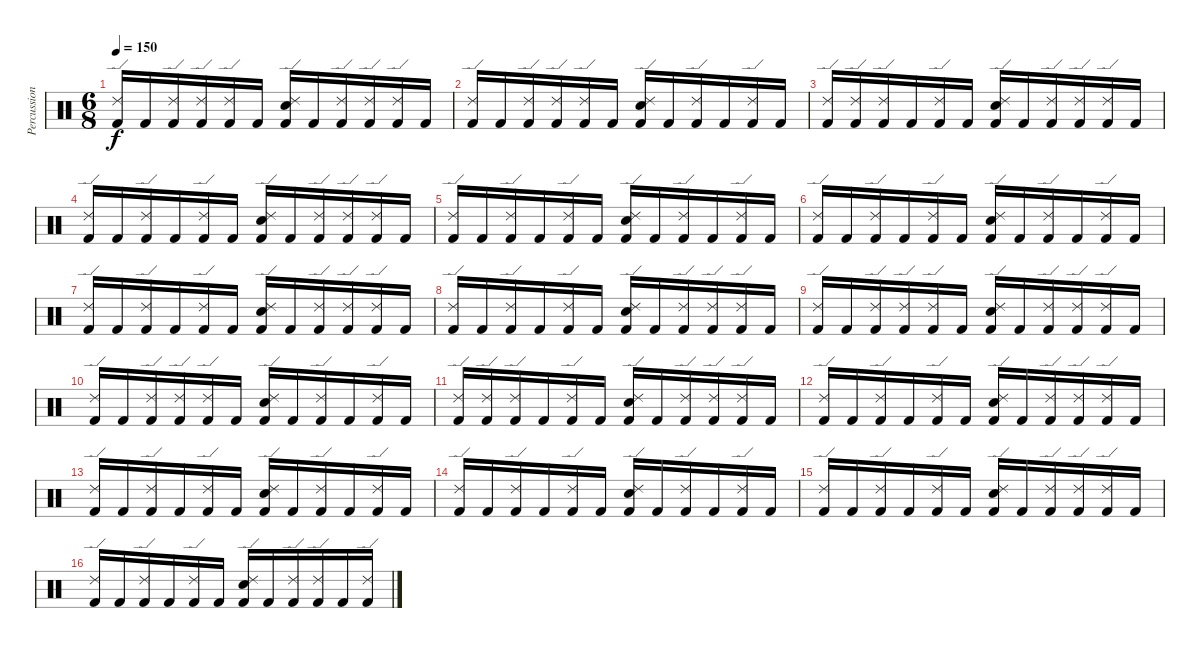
\track ("Percussion" "Percussion") {instrument percussion}
\staff {score}
\articulation defaults
\ts (6 8)
\tempo 150
\clef neutral
\ks c
("Ride (edge) 2" "Kick (hit) 2").16{dy f} "Kick (hit) 2".16 ("Ride (edge) 2" "Kick (hit) 2").16 ("Ride (edge) 2" "Kick (hit) 2").16 ("Ride (edge) 2" "Kick (hit) 2").16 "Kick (hit) 2".16 ("Ride (edge) 2" "Electric Snare (hit)" "Kick (hit) 2").16 "Kick (hit) 2".16 ("Ride (edge) 2" "Kick (hit) 2").16 ("Ride (edge) 2" "Kick (hit) 2").16 ("Ride (edge) 2" "Kick (hit) 2").16 "Kick (hit) 2".16 |
("Ride (edge) 2" "Kick (hit) 2").16 "Kick (hit) 2".16 ("Ride (edge) 2" "Kick (hit) 2").16 ("Ride (edge) 2" "Kick (hit) 2").16 ("Ride (edge) 2" "Kick (hit) 2").16 "Kick (hit) 2".16 ("Ride (edge) 2" "Electric Snare (hit)" "Kick (hit) 2").16 "Kick (hit) 2".16 ("Ride (edge) 2" "Kick (hit) 2").16 "Kick (hit) 2".16 ("Ride (edge) 2" "Kick (hit) 2").16 "Kick (hit) 2".16 |
("Ride (edge) 2" "Kick (hit) 2").16 ("Ride (edge) 2" "Kick (hit) 2").16 ("Ride (edge) 2" "Kick (hit) 2").16 "Kick (hit) 2".16 ("Ride (edge) 2" "Kick (hit) 2").16 "Kick (hit) 2".16 ("Ride (edge) 2" "Electric Snare (hit)" "Kick (hit) 2").16 "Kick (hit) 2".16 ("Ride (edge) 2" "Kick (hit) 2").16 ("Ride (edge) 2" "Kick (hit) 2").16 ("Ride (edge) 2" "Kick (hit) 2").16 "Kick (hit) 2".16 |
("Ride (edge) 2" "Kick (hit) 2").16 "Kick (hit) 2".16 ("Ride (edge) 2" "Kick (hit) 2").16 "Kick (hit) 2".16 ("Ride (edge) 2" "Kick (hit) 2").16 "Kick (hit) 2".16 ("Ride (edge) 2" "Electric Snare (hit)" "Kick (hit) 2").16 "Kick (hit) 2".16 ("Ride (edge) 2" "Kick (hit) 2").16 ("Ride (edge) 2" "Kick (hit) 2").16 ("Ride (edge) 2" "Kick (hit) 2").16 "Kick (hit) 2".16 |
("Ride (edge) 2" "Kick (hit) 2").16 "Kick (hit) 2".16 ("Ride (edge) 2" "Kick (hit) 2").16 "Kick (hit) 2".16 ("Ride (edge) 2" "Kick (hit) 2").16 "Kick (hit) 2".16 ("Ride (edge) 2" "Electric Snare (hit)" "Kick (hit) 2").16 "Kick (hit) 2".16 ("Ride (edge) 2" "Kick (hit) 2").16 "Kick (hit) 2".16 ("Ride (edge) 2" "Kick (hit) 2").16 "Kick (hit) 2".16 |
("Ride (edge) 2" "Kick (hit) 2").16 "Kick (hit) 2".16 ("Ride (edge) 2" "Kick (hit) 2").16 "Kick (hit) 2".16 ("Ride (edge) 2" "Kick (hit) 2").16 "Kick (hit) 2".16 ("Ride (edge) 2" "Electric Snare (hit)" "Kick (hit) 2").16 "Kick (hit) 2".16 ("Ride (edge) 2" "Kick (hit) 2").16 "Kick (hit) 2".16 ("Ride (edge) 2" "Kick (hit) 2").16 "Kick (hit) 2".16 |
("Ride (edge) 2" "Kick (hit) 2").16 "Kick (hit) 2".16 ("Ride (edge) 2" "Kick (hit) 2").16 "Kick (hit) 2".16 ("Ride (edge) 2" "Kick (hit) 2").16 "Kick (hit) 2".16 ("Ride (edge) 2" "Electric Snare (hit)" "Kick (hit) 2").16 "Kick (hit) 2".16 ("Ride (edge) 2" "Kick (hit) 2").16 ("Ride (edge) 2" "Kick (hit) 2").16 ("Ride (edge) 2" "Kick (hit) 2").16 "Kick (hit) 2".16 |
("Ride (edge) 2" "Kick (hit) 2").16 "Kick (hit) 2".16 ("Ride (edge) 2" "Kick (hit) 2").16 "Kick (hit) 2".16 ("Ride (edge) 2" "Kick (hit) 2").16 "Kick (hit) 2".16 ("Ride (edge) 2" "Electric Snare (hit)" "Kick (hit) 2").16 "Kick (hit) 2".16 ("Ride (edge) 2" "Kick (hit) 2").16 ("Ride (edge) 2" "Kick (hit) 2").16 ("Ride (edge) 2" "Kick (hit) 2").16 "Kick (hit) 2".16 |
("Ride (edge) 2" "Kick (hit) 2").16 "Kick (hit) 2".16 ("Ride (edge) 2" "Kick (hit) 2").16 ("Ride (edge) 2" "Kick (hit) 2").16 ("Ride (edge) 2" "Kick (hit) 2").16 "Kick (hit) 2".16 ("Ride (edge) 2" "Electric Snare (hit)" "Kick (hit) 2").16 "Kick (hit) 2".16 ("Ride (edge) 2" "Kick (hit) 2").16 ("Ride (edge) 2" "Kick (hit) 2").16 ("Ride (edge) 2" "Kick (hit) 2").16 "Kick (hit) 2".16 |
("Ride (edge) 2" "Kick (hit) 2").16 "Kick (hit) 2".16 ("Ride (edge) 2" "Kick (hit) 2").16 ("Ride (edge) 2" "Kick (hit) 2").16 ("Ride (edge) 2" "Kick (hit) 2").16 "Kick (hit) 2".16 ("Ride (edge) 2" "Electric Snare (hit)" "Kick (hit) 2").16 "Kick (hit) 2".16 ("Ride (edge) 2" "Kick (hit) 2").16 "Kick (hit) 2".16 ("Ride (edge) 2" "Kick (hit) 2").16 "Kick (hit) 2".16 |
("Ride (edge) 2" "Kick (hit) 2").16 ("Ride (edge) 2" "Kick (hit) 2").16 ("Ride (edge) 2" "Kick (hit) 2").16 "Kick (hit) 2".16 ("Ride (edge) 2" "Kick (hit) 2").16 "Kick (hit) 2".16 ("Ride (edge) 2" "Electric Snare (hit)" "Kick (hit) 2").16 "Kick (hit) 2".16 ("Ride (edge) 2" "Kick (hit) 2").16 ("Ride (edge) 2" "Kick (hit) 2").16 ("Ride (edge) 2" "Kick (hit) 2").16 "Kick (hit) 2".16 |
("Ride (edge) 2" "Kick (hit) 2").16 "Kick (hit) 2".16 ("Ride (edge) 2" "Kick (hit) 2").16 "Kick (hit) 2".16 ("Ride (edge) 2" "Kick (hit) 2").16 "Kick (hit) 2".16 ("Ride (edge) 2" "Electric Snare (hit)" "Kick (hit) 2").16 "Kick (hit) 2".16 ("Ride (edge) 2" "Kick (hit) 2").16 ("Ride (edge) 2" "Kick (hit) 2").16 ("Ride (edge) 2" "Kick (hit) 2").16 "Kick (hit) 2".16 |
("Ride (edge) 2" "Kick (hit) 2").16 "Kick (hit) 2".16 ("Ride (edge) 2" "Kick (hit) 2").16 "Kick (hit) 2".16 ("Ride (edge) 2" "Kick (hit) 2").16 "Kick (hit) 2".16 ("Ride (edge) 2" "Electric Snare (hit)" "Kick (hit) 2").16 "Kick (hit) 2".16 ("Ride (edge) 2" "Kick (hit) 2").16 "Kick (hit) 2".16 ("Ride (edge) 2" "Kick (hit) 2").16 "Kick (hit) 2".16 |
("Ride (edge) 2" "Kick (hit) 2").16 "Kick (hit) 2".16 ("Ride (edge) 2" "Kick (hit) 2").16 "Kick (hit) 2".16 ("Ride (edge) 2" "Kick (hit) 2").16 "Kick (hit) 2".16 ("Ride (edge) 2" "Electric Snare (hit)" "Kick (hit) 2").16 "Kick (hit) 2".16 ("Ride (edge) 2" "Kick (hit) 2").16 "Kick (hit) 2".16 ("Ride (edge) 2" "Kick (hit) 2").16 "Kick (hit) 2".16 |
("Ride (edge) 2" "Kick (hit) 2").16 "Kick (hit) 2".16 ("Ride (edge) 2" "Kick (hit) 2").16 "Kick (hit) 2".16 ("Ride (edge) 2" "Kick (hit) 2").16 "Kick (hit) 2".16 ("Ride (edge) 2" "Electric Snare (hit)" "Kick (hit) 2").16 "Kick (hit) 2".16 ("Ride (edge) 2" "Kick (hit) 2").16 ("Ride (edge) 2" "Kick (hit) 2").16 ("Ride (edge) 2" "Kick (hit) 2").16 "Kick (hit) 2".16 |
("Ride (edge) 2" "Kick (hit) 2").16 "Kick (hit) 2".16 ("Ride (edge) 2" "Kick (hit) 2").16 "Kick (hit) 2".16 ("Ride (edge) 2" "Kick (hit) 2").16 "Kick (hit) 2".16 ("Ride (edge) 2" "Electric Snare (hit)" "Kick (hit) 2").16 "Kick (hit) 2".16 ("Ride (edge) 2" "Kick (hit) 2").16 ("Ride (edge) 2" "Kick (hit) 2").16 "Kick (hit) 2".16 ("Ride (edge) 2" "Kick (hit) 2").16
